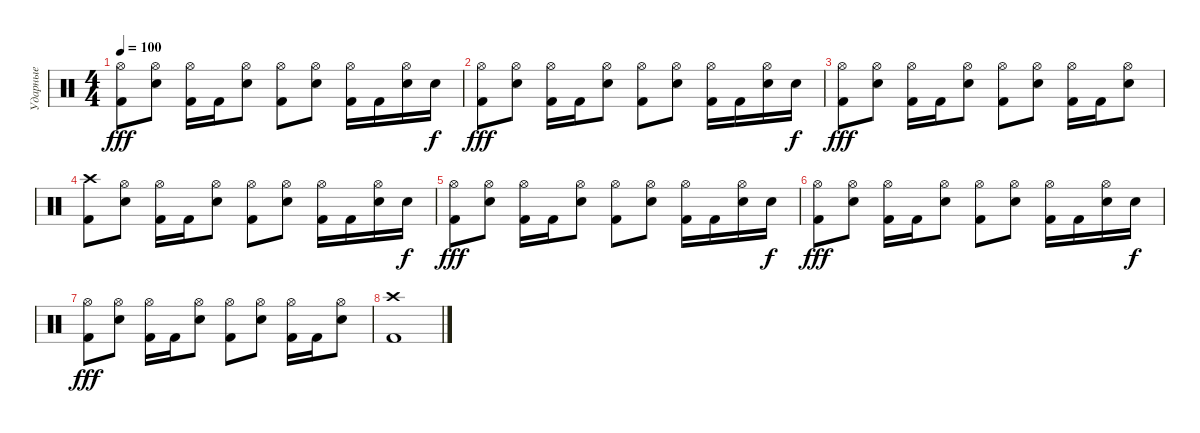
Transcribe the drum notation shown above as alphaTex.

\track ("Ударные" "Ударные") {instrument percussion}
\staff {score}
\articulation defaults
\ts (4 4)
\tempo 100
\clef neutral
\ks c
("Hi-Hat (open)" "Kick (hit) 2").8{dy fff} ("Hi-Hat (open)" "Snare (hit) 2").8 ("Hi-Hat (open)" "Kick (hit) 2").16 "Kick (hit) 2".16 ("Hi-Hat (open)" "Snare (hit) 2").8 ("Hi-Hat (open)" "Kick (hit) 2").8 ("Hi-Hat (open)" "Snare (hit) 2").8 ("Hi-Hat (open)" "Kick (hit) 2").16 "Kick (hit) 2".16 ("Hi-Hat (open)" "Snare (hit) 2").16 "Snare (hit) 2".16{dy f} |
("Hi-Hat (open)" "Kick (hit) 2").8{dy fff} ("Hi-Hat (open)" "Snare (hit) 2").8 ("Hi-Hat (open)" "Kick (hit) 2").16 "Kick (hit) 2".16 ("Hi-Hat (open)" "Snare (hit) 2").8 ("Hi-Hat (open)" "Kick (hit) 2").8 ("Hi-Hat (open)" "Snare (hit) 2").8 ("Hi-Hat (open)" "Kick (hit) 2").16 "Kick (hit) 2".16 ("Hi-Hat (open)" "Snare (hit) 2").16 "Snare (hit) 2".16{dy f} |
("Hi-Hat (open)" "Kick (hit) 2").8{dy fff} ("Hi-Hat (open)" "Snare (hit) 2").8 ("Hi-Hat (open)" "Kick (hit) 2").16 "Kick (hit) 2".16 ("Hi-Hat (open)" "Snare (hit) 2").8 ("Hi-Hat (open)" "Kick (hit) 2").8 ("Hi-Hat (open)" "Snare (hit) 2").8 ("Hi-Hat (open)" "Kick (hit) 2").16 "Kick (hit) 2".16 ("Hi-Hat (open)" "Snare (hit) 2").8 |
("Crash high (hit)" "Kick (hit) 2").8 ("Hi-Hat (open)" "Snare (hit) 2").8 ("Hi-Hat (open)" "Kick (hit) 2").16 "Kick (hit) 2".16 ("Hi-Hat (open)" "Snare (hit) 2").8 ("Hi-Hat (open)" "Kick (hit) 2").8 ("Hi-Hat (open)" "Snare (hit) 2").8 ("Hi-Hat (open)" "Kick (hit) 2").16 "Kick (hit) 2".16 ("Hi-Hat (open)" "Snare (hit) 2").16 "Snare (hit) 2".16{dy f} |
("Hi-Hat (open)" "Kick (hit) 2").8{dy fff} ("Hi-Hat (open)" "Snare (hit) 2").8 ("Hi-Hat (open)" "Kick (hit) 2").16 "Kick (hit) 2".16 ("Hi-Hat (open)" "Snare (hit) 2").8 ("Hi-Hat (open)" "Kick (hit) 2").8 ("Hi-Hat (open)" "Snare (hit) 2").8 ("Hi-Hat (open)" "Kick (hit) 2").16 "Kick (hit) 2".16 ("Hi-Hat (open)" "Snare (hit) 2").16 "Snare (hit) 2".16{dy f} |
("Hi-Hat (open)" "Kick (hit) 2").8{dy fff} ("Hi-Hat (open)" "Snare (hit) 2").8 ("Hi-Hat (open)" "Kick (hit) 2").16 "Kick (hit) 2".16 ("Hi-Hat (open)" "Snare (hit) 2").8 ("Hi-Hat (open)" "Kick (hit) 2").8 ("Hi-Hat (open)" "Snare (hit) 2").8 ("Hi-Hat (open)" "Kick (hit) 2").16 "Kick (hit) 2".16 ("Hi-Hat (open)" "Snare (hit) 2").16 "Snare (hit) 2".16{dy f} |
("Hi-Hat (open)" "Kick (hit) 2").8{dy fff} ("Hi-Hat (open)" "Snare (hit) 2").8 ("Hi-Hat (open)" "Kick (hit) 2").16 "Kick (hit) 2".16 ("Hi-Hat (open)" "Snare (hit) 2").8 ("Hi-Hat (open)" "Kick (hit) 2").8 ("Hi-Hat (open)" "Snare (hit) 2").8 ("Hi-Hat (open)" "Kick (hit) 2").16 "Kick (hit) 2".16 ("Hi-Hat (open)" "Snare (hit) 2").8 |
("Crash high (hit)" "Kick (hit) 2").1
